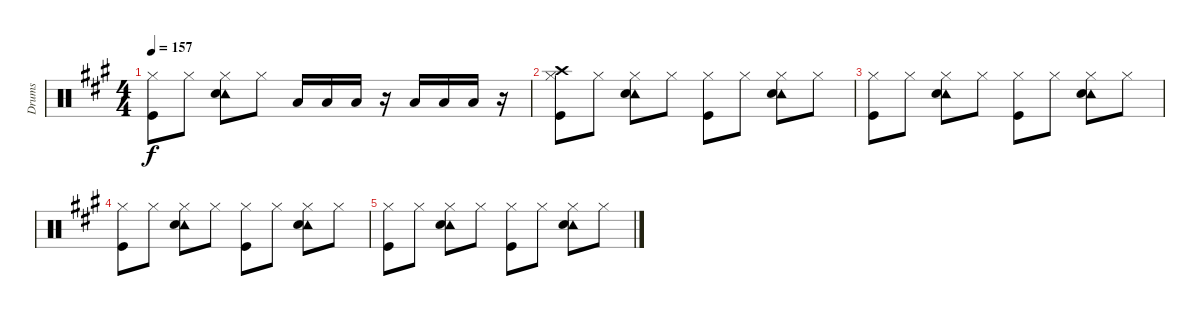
\track ("Drums" "Drums") {instrument percussion}
\staff {score}
\articulation defaults
\ts (4 4)
\tempo 157
\clef neutral
\ks a
("Hi-Hat (closed)" "Kick (hit)").8{dy f} "Hi-Hat (closed)".8 ("Hi-Hat (closed)" "Tambourine (hit)" "Electric Snare (hit)").8 "Hi-Hat (closed)".8 "Low Tom (hit)".16 "Low Tom (hit)".16 "Low Tom (hit)".16 r.16 "Low Floor Tom (hit)".16 "Low Floor Tom (hit)".16 "Low Floor Tom (hit)".16 r.16 |
("Hi-Hat (closed)" "Crash high (hit)" "Kick (hit)").8{volume 7} "Hi-Hat (closed)".8 ("Hi-Hat (closed)" "Tambourine (hit)" "Electric Snare (hit)").8 "Hi-Hat (closed)".8 ("Hi-Hat (closed)" "Kick (hit)").8 "Hi-Hat (closed)".8 ("Hi-Hat (closed)" "Tambourine (hit)" "Electric Snare (hit)").8 "Hi-Hat (closed)".8 |
("Hi-Hat (closed)" "Kick (hit)").8{volume 5} "Hi-Hat (closed)".8 ("Hi-Hat (closed)" "Tambourine (hit)" "Electric Snare (hit)").8 "Hi-Hat (closed)".8 ("Hi-Hat (closed)" "Kick (hit)").8 "Hi-Hat (closed)".8 ("Hi-Hat (closed)" "Tambourine (hit)" "Electric Snare (hit)").8 "Hi-Hat (closed)".8 |
("Hi-Hat (closed)" "Kick (hit)").8 "Hi-Hat (closed)".8 ("Hi-Hat (closed)" "Tambourine (hit)" "Electric Snare (hit)").8 "Hi-Hat (closed)".8 ("Hi-Hat (closed)" "Kick (hit)").8 "Hi-Hat (closed)".8 ("Hi-Hat (closed)" "Tambourine (hit)" "Electric Snare (hit)").8 "Hi-Hat (closed)".8 |
("Hi-Hat (closed)" "Kick (hit)").8{volume 3} "Hi-Hat (closed)".8 ("Hi-Hat (closed)" "Tambourine (hit)" "Electric Snare (hit)").8 "Hi-Hat (closed)".8 ("Hi-Hat (closed)" "Kick (hit)").8{volume 2} "Hi-Hat (closed)".8 ("Hi-Hat (closed)" "Tambourine (hit)" "Electric Snare (hit)").8 "Hi-Hat (closed)".8
